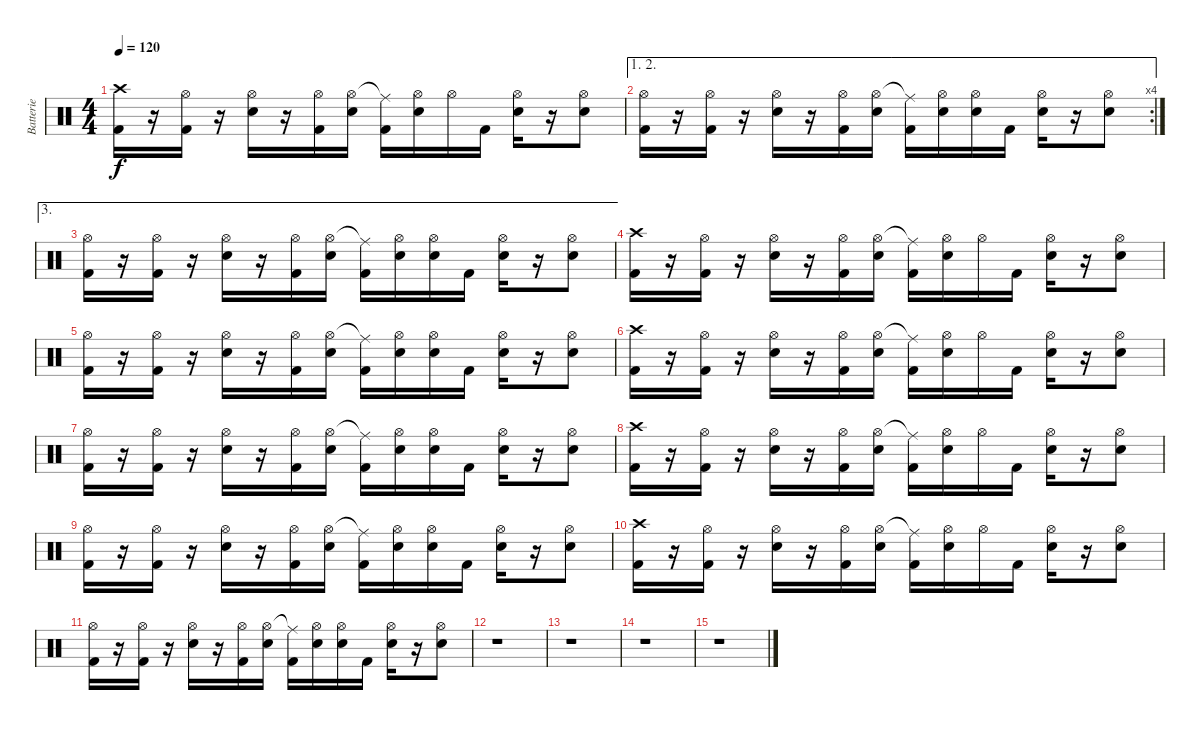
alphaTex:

\track ("Batterie" "Batterie") {instrument percussion}
\staff {score}
\articulation defaults
\ts (4 4)
\tempo 120
\clef neutral
\ks c
("Crash high (hit)" "Kick (hit) 2").16{dy f} r.16 ("Hi-Hat (open)" "Kick (hit) 2").16 r.16 ("Hi-Hat (open)" "Snare (hit) 2").16 r.16 ("Hi-Hat (open)" "Kick (hit) 2").16 ("Hi-Hat (open)" "Snare (hit) 2").16 ("Ride (middle)"{t} "Kick (hit) 2").16 ("Hi-Hat (open)" "Snare (hit) 2").16 "Hi-Hat (open)".16 "Kick (hit) 2".16 ("Hi-Hat (open)" "Snare (hit) 2").16 r.16 ("Hi-Hat (open)" "Snare (hit) 2").8 |
\ae (1 2)
\rc 4
("Hi-Hat (open)" "Kick (hit) 2").16 r.16 ("Hi-Hat (open)" "Kick (hit) 2").16 r.16 ("Hi-Hat (open)" "Snare (hit) 2").16 r.16 ("Hi-Hat (open)" "Kick (hit) 2").16 ("Hi-Hat (open)" "Snare (hit) 2").16 ("Ride (middle)"{t} "Kick (hit) 2").16 ("Hi-Hat (open)" "Snare (hit) 2").16 ("Hi-Hat (open)" "Snare (hit) 2").16 "Kick (hit) 2".16 ("Hi-Hat (open)" "Snare (hit) 2").16 r.16 ("Hi-Hat (open)" "Snare (hit) 2").8 |
\ae 3
("Hi-Hat (open)" "Kick (hit) 2").16 r.16 ("Hi-Hat (open)" "Kick (hit) 2").16 r.16 ("Hi-Hat (open)" "Snare (hit) 2").16 r.16 ("Hi-Hat (open)" "Kick (hit) 2").16 ("Hi-Hat (open)" "Snare (hit) 2").16 ("Ride (middle)"{t} "Kick (hit) 2").16 ("Hi-Hat (open)" "Snare (hit) 2").16 ("Hi-Hat (open)" "Snare (hit) 2").16 "Kick (hit) 2".16 ("Hi-Hat (open)" "Snare (hit) 2").16 r.16 ("Hi-Hat (open)" "Snare (hit) 2").8 |
("Crash high (hit)" "Kick (hit) 2").16 r.16 ("Hi-Hat (open)" "Kick (hit) 2").16 r.16 ("Hi-Hat (open)" "Snare (hit) 2").16 r.16 ("Hi-Hat (open)" "Kick (hit) 2").16 ("Hi-Hat (open)" "Snare (hit) 2").16 ("Ride (middle)"{t} "Kick (hit) 2").16 ("Hi-Hat (open)" "Snare (hit) 2").16 "Hi-Hat (open)".16 "Kick (hit) 2".16 ("Hi-Hat (open)" "Snare (hit) 2").16 r.16 ("Hi-Hat (open)" "Snare (hit) 2").8 |
("Hi-Hat (open)" "Kick (hit) 2").16 r.16 ("Hi-Hat (open)" "Kick (hit) 2").16 r.16 ("Hi-Hat (open)" "Snare (hit) 2").16 r.16 ("Hi-Hat (open)" "Kick (hit) 2").16 ("Hi-Hat (open)" "Snare (hit) 2").16 ("Ride (middle)"{t} "Kick (hit) 2").16 ("Hi-Hat (open)" "Snare (hit) 2").16 ("Hi-Hat (open)" "Snare (hit) 2").16 "Kick (hit) 2".16 ("Hi-Hat (open)" "Snare (hit) 2").16 r.16 ("Hi-Hat (open)" "Snare (hit) 2").8 |
("Crash high (hit)" "Kick (hit) 2").16 r.16 ("Hi-Hat (open)" "Kick (hit) 2").16 r.16 ("Hi-Hat (open)" "Snare (hit) 2").16 r.16 ("Hi-Hat (open)" "Kick (hit) 2").16 ("Hi-Hat (open)" "Snare (hit) 2").16 ("Ride (middle)"{t} "Kick (hit) 2").16 ("Hi-Hat (open)" "Snare (hit) 2").16 "Hi-Hat (open)".16 "Kick (hit) 2".16 ("Hi-Hat (open)" "Snare (hit) 2").16 r.16 ("Hi-Hat (open)" "Snare (hit) 2").8 |
("Hi-Hat (open)" "Kick (hit) 2").16 r.16 ("Hi-Hat (open)" "Kick (hit) 2").16 r.16 ("Hi-Hat (open)" "Snare (hit) 2").16 r.16 ("Hi-Hat (open)" "Kick (hit) 2").16 ("Hi-Hat (open)" "Snare (hit) 2").16 ("Ride (middle)"{t} "Kick (hit) 2").16 ("Hi-Hat (open)" "Snare (hit) 2").16 ("Hi-Hat (open)" "Snare (hit) 2").16 "Kick (hit) 2".16 ("Hi-Hat (open)" "Snare (hit) 2").16 r.16 ("Hi-Hat (open)" "Snare (hit) 2").8 |
("Crash high (hit)" "Kick (hit) 2").16 r.16 ("Hi-Hat (open)" "Kick (hit) 2").16 r.16 ("Hi-Hat (open)" "Snare (hit) 2").16 r.16 ("Hi-Hat (open)" "Kick (hit) 2").16 ("Hi-Hat (open)" "Snare (hit) 2").16 ("Ride (middle)"{t} "Kick (hit) 2").16 ("Hi-Hat (open)" "Snare (hit) 2").16 "Hi-Hat (open)".16 "Kick (hit) 2".16 ("Hi-Hat (open)" "Snare (hit) 2").16 r.16 ("Hi-Hat (open)" "Snare (hit) 2").8 |
("Hi-Hat (open)" "Kick (hit) 2").16 r.16 ("Hi-Hat (open)" "Kick (hit) 2").16 r.16 ("Hi-Hat (open)" "Snare (hit) 2").16 r.16 ("Hi-Hat (open)" "Kick (hit) 2").16 ("Hi-Hat (open)" "Snare (hit) 2").16 ("Ride (middle)"{t} "Kick (hit) 2").16 ("Hi-Hat (open)" "Snare (hit) 2").16 ("Hi-Hat (open)" "Snare (hit) 2").16 "Kick (hit) 2".16 ("Hi-Hat (open)" "Snare (hit) 2").16 r.16 ("Hi-Hat (open)" "Snare (hit) 2").8 |
("Crash high (hit)" "Kick (hit) 2").16 r.16 ("Hi-Hat (open)" "Kick (hit) 2").16 r.16 ("Hi-Hat (open)" "Snare (hit) 2").16 r.16 ("Hi-Hat (open)" "Kick (hit) 2").16 ("Hi-Hat (open)" "Snare (hit) 2").16 ("Ride (middle)"{t} "Kick (hit) 2").16 ("Hi-Hat (open)" "Snare (hit) 2").16 "Hi-Hat (open)".16 "Kick (hit) 2".16 ("Hi-Hat (open)" "Snare (hit) 2").16 r.16 ("Hi-Hat (open)" "Snare (hit) 2").8 |
("Hi-Hat (open)" "Kick (hit) 2").16 r.16 ("Hi-Hat (open)" "Kick (hit) 2").16 r.16 ("Hi-Hat (open)" "Snare (hit) 2").16 r.16 ("Hi-Hat (open)" "Kick (hit) 2").16 ("Hi-Hat (open)" "Snare (hit) 2").16 ("Ride (middle)"{t} "Kick (hit) 2").16 ("Hi-Hat (open)" "Snare (hit) 2").16 ("Hi-Hat (open)" "Snare (hit) 2").16 "Kick (hit) 2".16 ("Hi-Hat (open)" "Snare (hit) 2").16 r.16 ("Hi-Hat (open)" "Snare (hit) 2").8 |
r.1 |
r.1 |
r.1 |
r.1
